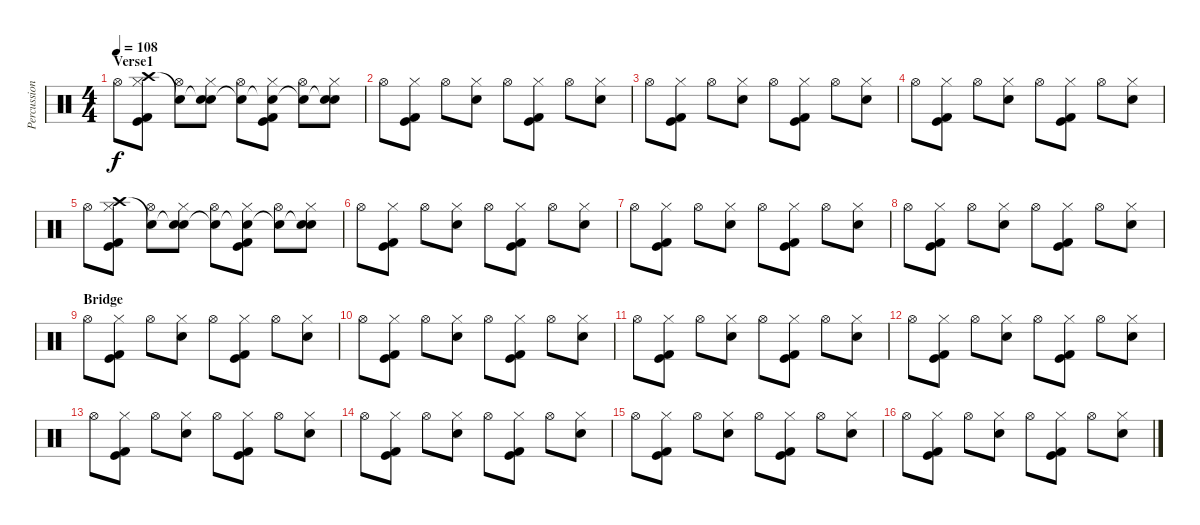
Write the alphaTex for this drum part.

\track ("Percussion" "Percussion") {instrument percussion}
\staff {score}
\articulation defaults
\ts (4 4)
\section ("" "Verse1")
\tempo 108
\clef neutral
\ks c "Hi-Hat (open)".8{dy f}
("Hi-Hat (closed)" "Crash high (hit)" "Kick (hit)" "Kick (hit) 2").8 ("Hi-Hat (open)" "Snare (hit)"{t}).8 ("Hi-Hat (closed)" "Snare (hit)"{t} "Snare (hit) 2").8 ("Hi-Hat (open)" "Snare (hit)"{t}).8 ("Hi-Hat (closed)" "Snare (hit)"{t} "Kick (hit)" "Kick (hit) 2").8 ("Hi-Hat (open)" "Snare (hit)"{t}).8 ("Hi-Hat (closed)" "Snare (hit)"{t} "Snare (hit) 2").8 |
"Hi-Hat (open)".8 ("Hi-Hat (closed)" "Kick (hit)" "Kick (hit) 2").8 "Hi-Hat (open)".8 ("Hi-Hat (closed)" "Snare (hit) 2").8 "Hi-Hat (open)".8 ("Hi-Hat (closed)" "Kick (hit)" "Kick (hit) 2").8 "Hi-Hat (open)".8 ("Hi-Hat (closed)" "Snare (hit) 2").8 |
"Hi-Hat (open)".8 ("Hi-Hat (closed)" "Kick (hit)" "Kick (hit) 2").8 "Hi-Hat (open)".8 ("Hi-Hat (closed)" "Snare (hit) 2").8 "Hi-Hat (open)".8 ("Hi-Hat (closed)" "Kick (hit)" "Kick (hit) 2").8 "Hi-Hat (open)".8 ("Hi-Hat (closed)" "Snare (hit) 2").8 |
"Hi-Hat (open)".8 ("Hi-Hat (closed)" "Kick (hit)" "Kick (hit) 2").8 "Hi-Hat (open)".8 ("Hi-Hat (closed)" "Snare (hit) 2").8 "Hi-Hat (open)".8 ("Hi-Hat (closed)" "Kick (hit)" "Kick (hit) 2").8 "Hi-Hat (open)".8 ("Hi-Hat (closed)" "Snare (hit) 2").8 |
"Hi-Hat (open)".8 ("Hi-Hat (closed)" "Crash high (hit)" "Kick (hit)" "Kick (hit) 2").8 ("Hi-Hat (open)" "Snare (hit)"{t}).8 ("Hi-Hat (closed)" "Snare (hit)"{t} "Snare (hit) 2").8 ("Hi-Hat (open)" "Snare (hit)"{t}).8 ("Hi-Hat (closed)" "Snare (hit)"{t} "Kick (hit)" "Kick (hit) 2").8 ("Hi-Hat (open)" "Snare (hit)"{t}).8 ("Hi-Hat (closed)" "Snare (hit)"{t} "Snare (hit) 2").8 |
"Hi-Hat (open)".8 ("Hi-Hat (closed)" "Kick (hit)" "Kick (hit) 2").8 "Hi-Hat (open)".8 ("Hi-Hat (closed)" "Snare (hit) 2").8 "Hi-Hat (open)".8 ("Hi-Hat (closed)" "Kick (hit)" "Kick (hit) 2").8 "Hi-Hat (open)".8 ("Hi-Hat (closed)" "Snare (hit) 2").8 |
"Hi-Hat (open)".8 ("Hi-Hat (closed)" "Kick (hit)" "Kick (hit) 2").8 "Hi-Hat (open)".8 ("Hi-Hat (closed)" "Snare (hit) 2").8 "Hi-Hat (open)".8 ("Hi-Hat (closed)" "Kick (hit)" "Kick (hit) 2").8 "Hi-Hat (open)".8 ("Hi-Hat (closed)" "Snare (hit) 2").8 |
"Hi-Hat (open)".8 ("Hi-Hat (closed)" "Kick (hit)" "Kick (hit) 2").8 "Hi-Hat (open)".8 ("Hi-Hat (closed)" "Snare (hit) 2").8 "Hi-Hat (open)".8 ("Hi-Hat (closed)" "Kick (hit)" "Kick (hit) 2").8 "Hi-Hat (open)".8 ("Hi-Hat (closed)" "Snare (hit) 2").8 |
\section ("" "Bridge")
"Hi-Hat (open)".8 ("Hi-Hat (closed)" "Kick (hit)" "Kick (hit) 2").8 "Hi-Hat (open)".8 ("Hi-Hat (closed)" "Snare (hit) 2").8 "Hi-Hat (open)".8 ("Hi-Hat (closed)" "Kick (hit)" "Kick (hit) 2").8 "Hi-Hat (open)".8 ("Hi-Hat (closed)" "Snare (hit) 2").8 |
"Hi-Hat (open)".8 ("Hi-Hat (closed)" "Kick (hit)" "Kick (hit) 2").8 "Hi-Hat (open)".8 ("Hi-Hat (closed)" "Snare (hit) 2").8 "Hi-Hat (open)".8 ("Hi-Hat (closed)" "Kick (hit)" "Kick (hit) 2").8 "Hi-Hat (open)".8 ("Hi-Hat (closed)" "Snare (hit) 2").8 |
"Hi-Hat (open)".8 ("Hi-Hat (closed)" "Kick (hit)" "Kick (hit) 2").8 "Hi-Hat (open)".8 ("Hi-Hat (closed)" "Snare (hit) 2").8 "Hi-Hat (open)".8 ("Hi-Hat (closed)" "Kick (hit)" "Kick (hit) 2").8 "Hi-Hat (open)".8 ("Hi-Hat (closed)" "Snare (hit) 2").8 |
"Hi-Hat (open)".8 ("Hi-Hat (closed)" "Kick (hit)" "Kick (hit) 2").8 "Hi-Hat (open)".8 ("Hi-Hat (closed)" "Snare (hit) 2").8 "Hi-Hat (open)".8 ("Hi-Hat (closed)" "Kick (hit)" "Kick (hit) 2").8 "Hi-Hat (open)".8 ("Hi-Hat (closed)" "Snare (hit) 2").8 |
"Hi-Hat (open)".8 ("Hi-Hat (closed)" "Kick (hit)" "Kick (hit) 2").8 "Hi-Hat (open)".8 ("Hi-Hat (closed)" "Snare (hit) 2").8 "Hi-Hat (open)".8 ("Hi-Hat (closed)" "Kick (hit)" "Kick (hit) 2").8 "Hi-Hat (open)".8 ("Hi-Hat (closed)" "Snare (hit) 2").8 |
"Hi-Hat (open)".8 ("Hi-Hat (closed)" "Kick (hit)" "Kick (hit) 2").8 "Hi-Hat (open)".8 ("Hi-Hat (closed)" "Snare (hit) 2").8 "Hi-Hat (open)".8 ("Hi-Hat (closed)" "Kick (hit)" "Kick (hit) 2").8 "Hi-Hat (open)".8 ("Hi-Hat (closed)" "Snare (hit) 2").8 |
"Hi-Hat (open)".8 ("Hi-Hat (closed)" "Kick (hit)" "Kick (hit) 2").8 "Hi-Hat (open)".8 ("Hi-Hat (closed)" "Snare (hit) 2").8 "Hi-Hat (open)".8 ("Hi-Hat (closed)" "Kick (hit)" "Kick (hit) 2").8 "Hi-Hat (open)".8 ("Hi-Hat (closed)" "Snare (hit) 2").8 |
"Hi-Hat (open)".8 ("Hi-Hat (closed)" "Kick (hit)" "Kick (hit) 2").8 "Hi-Hat (open)".8 ("Hi-Hat (closed)" "Snare (hit) 2").8 "Hi-Hat (open)".8 ("Hi-Hat (closed)" "Kick (hit)" "Kick (hit) 2").8 "Hi-Hat (open)".8 ("Hi-Hat (closed)" "Snare (hit) 2").8
